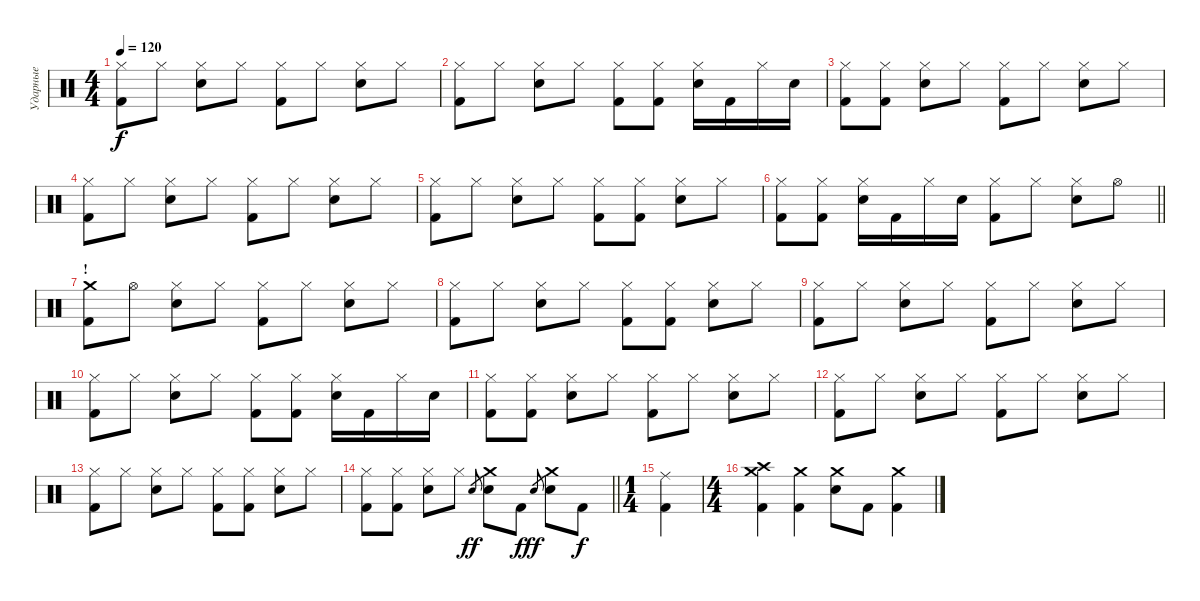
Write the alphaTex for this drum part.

\track ("Ударные" "Ударные") {instrument percussion}
\staff {score}
\articulation defaults
\ts (4 4)
\tempo 120
\clef neutral
\ks c
("Hi-Hat (closed)" "Kick (hit) 2").8{dy f} "Hi-Hat (closed)".8 ("Hi-Hat (closed)" "Snare (hit) 2").8 "Hi-Hat (closed)".8 ("Hi-Hat (closed)" "Kick (hit) 2").8 "Hi-Hat (closed)".8 ("Hi-Hat (closed)" "Snare (hit) 2").8 "Hi-Hat (closed)".8 |
("Hi-Hat (closed)" "Kick (hit) 2").8 "Hi-Hat (closed)".8 ("Hi-Hat (closed)" "Snare (hit) 2").8 "Hi-Hat (closed)".8 ("Hi-Hat (closed)" "Kick (hit) 2").8 ("Hi-Hat (closed)" "Kick (hit) 2").8 ("Hi-Hat (closed)" "Snare (hit) 2").16 "Kick (hit) 2".16 "Hi-Hat (closed)".16 "Snare (hit) 2".16 |
("Hi-Hat (closed)" "Kick (hit) 2").8 ("Hi-Hat (closed)" "Kick (hit) 2").8 ("Hi-Hat (closed)" "Snare (hit) 2").8 "Hi-Hat (closed)".8 ("Hi-Hat (closed)" "Kick (hit) 2").8 "Hi-Hat (closed)".8 ("Hi-Hat (closed)" "Snare (hit) 2").8 "Hi-Hat (closed)".8 |
("Hi-Hat (closed)" "Kick (hit) 2").8 "Hi-Hat (closed)".8 ("Hi-Hat (closed)" "Snare (hit) 2").8 "Hi-Hat (closed)".8 ("Hi-Hat (closed)" "Kick (hit) 2").8 "Hi-Hat (closed)".8 ("Hi-Hat (closed)" "Snare (hit) 2").8 "Hi-Hat (closed)".8 |
("Hi-Hat (closed)" "Kick (hit) 2").8 "Hi-Hat (closed)".8 ("Hi-Hat (closed)" "Snare (hit) 2").8 "Hi-Hat (closed)".8 ("Hi-Hat (closed)" "Kick (hit) 2").8 ("Hi-Hat (closed)" "Kick (hit) 2").8 ("Hi-Hat (closed)" "Snare (hit) 2").8 "Hi-Hat (closed)".8 |
\barLineRight lightlight
("Hi-Hat (closed)" "Kick (hit) 2").8 ("Hi-Hat (closed)" "Kick (hit) 2").8 ("Hi-Hat (closed)" "Snare (hit) 2").16 "Kick (hit) 2".16 "Hi-Hat (closed)".16 "Snare (hit) 2".16 ("Hi-Hat (closed)" "Kick (hit) 2").8 "Hi-Hat (closed)".8 ("Hi-Hat (closed)" "Snare (hit) 2").8 "Hi-Hat (open)".8 |
\section ("" "!")
("Crash medium (hit)" "Kick (hit) 2").8 "Hi-Hat (open)".8 ("Hi-Hat (closed)" "Snare (hit) 2").8 "Hi-Hat (closed)".8 ("Hi-Hat (closed)" "Kick (hit) 2").8 "Hi-Hat (closed)".8 ("Hi-Hat (closed)" "Snare (hit) 2").8 "Hi-Hat (closed)".8 |
("Hi-Hat (closed)" "Kick (hit) 2").8 "Hi-Hat (closed)".8 ("Hi-Hat (closed)" "Snare (hit) 2").8 "Hi-Hat (closed)".8 ("Hi-Hat (closed)" "Kick (hit) 2").8 ("Hi-Hat (closed)" "Kick (hit) 2").8 ("Hi-Hat (closed)" "Snare (hit) 2").8 "Hi-Hat (closed)".8 |
("Hi-Hat (closed)" "Kick (hit) 2").8 "Hi-Hat (closed)".8 ("Hi-Hat (closed)" "Snare (hit) 2").8 "Hi-Hat (closed)".8 ("Hi-Hat (closed)" "Kick (hit) 2").8 "Hi-Hat (closed)".8 ("Hi-Hat (closed)" "Snare (hit) 2").8 "Hi-Hat (closed)".8 |
("Hi-Hat (closed)" "Kick (hit) 2").8 "Hi-Hat (closed)".8 ("Hi-Hat (closed)" "Snare (hit) 2").8 "Hi-Hat (closed)".8 ("Hi-Hat (closed)" "Kick (hit) 2").8 ("Hi-Hat (closed)" "Kick (hit) 2").8 ("Hi-Hat (closed)" "Snare (hit) 2").16 "Kick (hit) 2".16 "Hi-Hat (closed)".16 "Snare (hit) 2".16 |
("Hi-Hat (closed)" "Kick (hit) 2").8 ("Hi-Hat (closed)" "Kick (hit) 2").8 ("Hi-Hat (closed)" "Snare (hit) 2").8 "Hi-Hat (closed)".8 ("Hi-Hat (closed)" "Kick (hit) 2").8 "Hi-Hat (closed)".8 ("Hi-Hat (closed)" "Snare (hit) 2").8 "Hi-Hat (closed)".8 |
("Hi-Hat (closed)" "Kick (hit) 2").8 "Hi-Hat (closed)".8 ("Hi-Hat (closed)" "Snare (hit) 2").8 "Hi-Hat (closed)".8 ("Hi-Hat (closed)" "Kick (hit) 2").8 "Hi-Hat (closed)".8 ("Hi-Hat (closed)" "Snare (hit) 2").8 "Hi-Hat (closed)".8 |
("Hi-Hat (closed)" "Kick (hit) 2").8 "Hi-Hat (closed)".8 ("Hi-Hat (closed)" "Snare (hit) 2").8 "Hi-Hat (closed)".8 ("Hi-Hat (closed)" "Kick (hit) 2").8 ("Hi-Hat (closed)" "Kick (hit) 2").8 ("Hi-Hat (closed)" "Snare (hit) 2").8 "Hi-Hat (closed)".8 |
\barLineRight lightlight
("Hi-Hat (closed)" "Kick (hit) 2").8 ("Hi-Hat (closed)" "Kick (hit) 2").8 ("Hi-Hat (closed)" "Snare (hit) 2").8 "Hi-Hat (closed)".8 "Snare (hit) 2".8{gr dy ff} ("Crash medium (hit)" "Snare (hit) 2").8 "Kick (hit) 2".8{dy f} "Snare (hit) 2".8{gr dy ff} ("Crash medium (hit)" "Snare (hit) 2").8 "Kick (hit) 2".8{dy f} |
\ts (1 4)
("Ride (middle)" "Kick (hit) 2").4 |
\ts (4 4)
("Crash medium (hit)" "Crash high (hit)" "Kick (hit) 2").4 ("Crash medium (hit)" "Kick (hit) 2").4 ("Crash medium (hit)" "Snare (hit) 2").8 "Kick (hit) 2".8 ("Crash medium (hit)" "Kick (hit) 2").4
